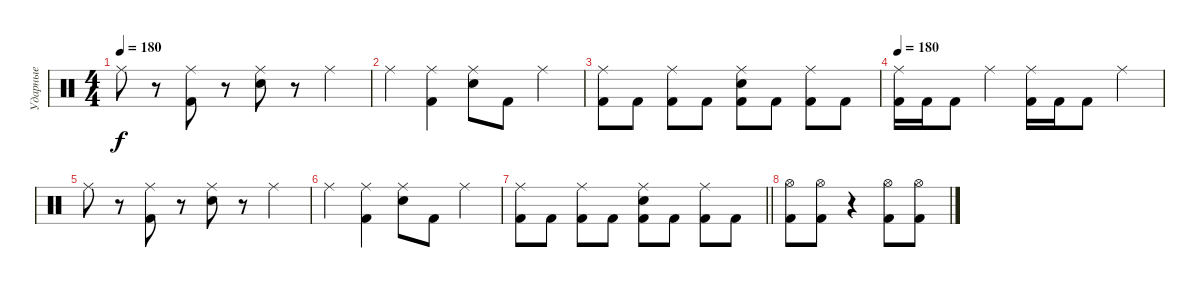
\track ("Ударные" "Ударные") {instrument percussion}
\staff {score}
\articulation defaults
\ts (4 4)
\tempo 180
\clef neutral
\ks c "Ride (middle)".8{dy f}
r.8 ("Ride (middle)" "Kick (hit) 2").8 r.8 ("Ride (middle)" "Electric Snare (hit)").8 r.8 "Ride (middle)".4 |
"Ride (middle)".4 ("Ride (middle)" "Kick (hit) 2").4 ("Ride (middle)" "Electric Snare (hit)").8 "Kick (hit) 2".8 "Ride (middle)".4 |
("Ride (middle)" "Kick (hit) 2").8 "Kick (hit) 2".8 ("Ride (middle)" "Kick (hit) 2").8 "Kick (hit) 2".8 ("Ride (middle)" "Electric Snare (hit)" "Kick (hit) 2").8 "Kick (hit) 2".8 ("Ride (middle)" "Kick (hit) 2").8 "Kick (hit) 2".8 |
\tempo 180
("Ride (middle)" "Kick (hit) 2").16 "Kick (hit) 2".16 "Kick (hit) 2".8 "Ride (middle)".4 ("Ride (middle)" "Kick (hit) 2").16 "Kick (hit) 2".16 "Kick (hit) 2".8 "Ride (middle)".4 |
"Ride (middle)".8 r.8 ("Ride (middle)" "Kick (hit) 2").8 r.8 ("Ride (middle)" "Electric Snare (hit)").8 r.8 "Ride (middle)".4 |
"Ride (middle)".4 ("Ride (middle)" "Kick (hit) 2").4 ("Ride (middle)" "Electric Snare (hit)").8 "Kick (hit) 2".8 "Ride (middle)".4 |
\barLineRight lightlight
("Ride (middle)" "Kick (hit) 2").8 "Kick (hit) 2".8 ("Ride (middle)" "Kick (hit) 2").8 "Kick (hit) 2".8 ("Ride (middle)" "Electric Snare (hit)" "Kick (hit) 2").8 "Kick (hit) 2".8 ("Ride (middle)" "Kick (hit) 2").8 "Kick (hit) 2".8 |
("Hi-Hat (open)" "Kick (hit) 2").8 ("Hi-Hat (open)" "Kick (hit) 2").8 r.4 ("Hi-Hat (open)" "Kick (hit) 2").8 ("Hi-Hat (open)" "Kick (hit) 2").8
